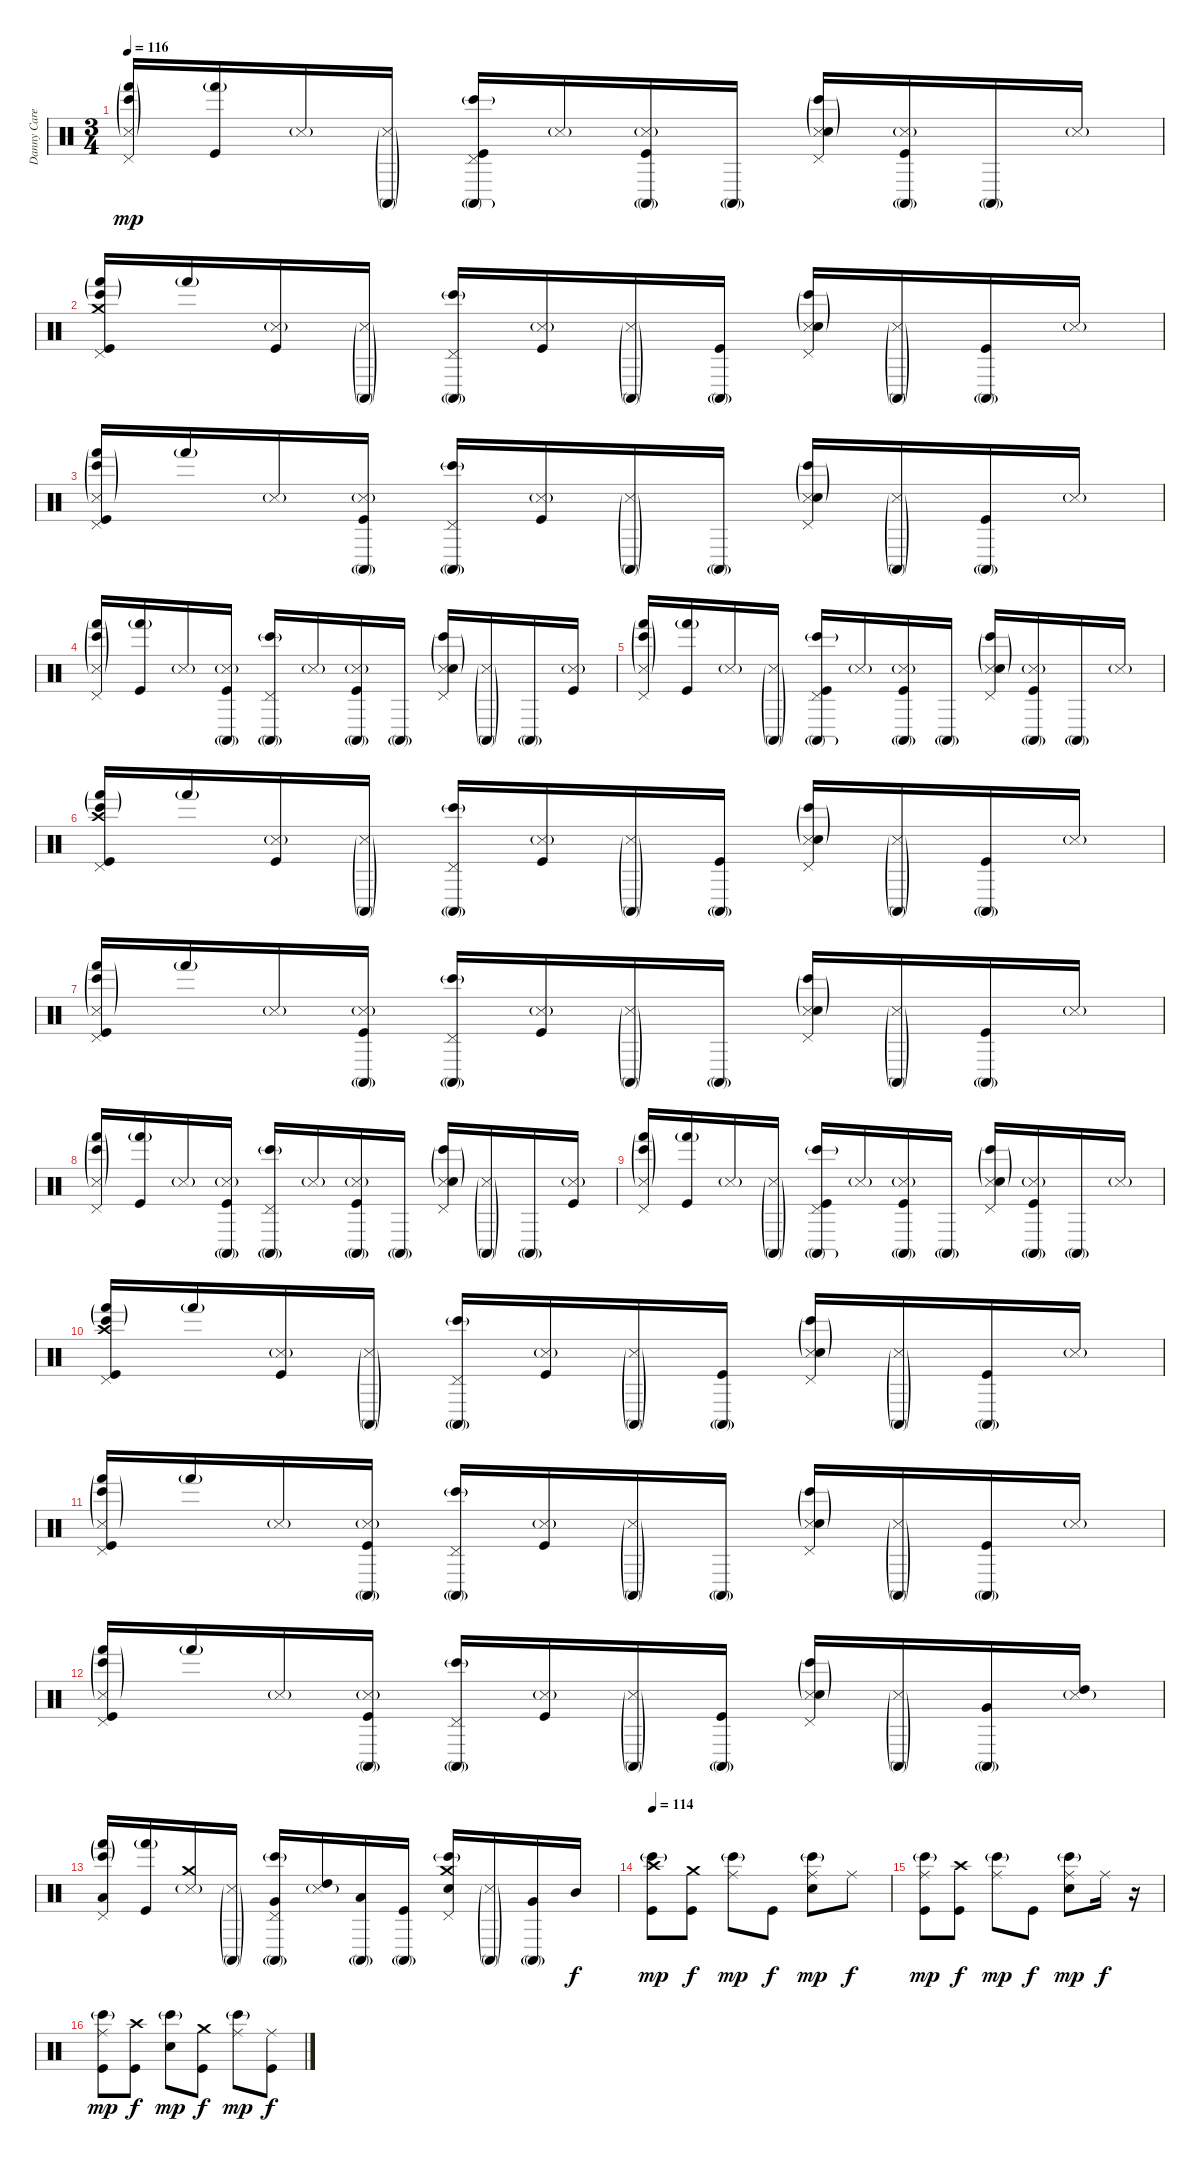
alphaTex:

\track ("Danny Carey (drum)" "Danny Care") {instrument percussion}
\staff {score}
\articulation defaults
\ts (3 4)
\tempo 116
\clef neutral
\ks c
("Hand (hit)"{g} "Pedal Hi-Hat (hit)" "Snare (side stick) 3"{g} "Bongo High (hit)"{g}).16{dy mp} ("Hand (hit)"{g} "Kick (hit)").16 "Snare (side stick) 3"{g}.16 ("Conga high (mute)"{g} "Snare (side stick) 3"{g}).16 ("Conga high (mute)"{g} "Pedal Hi-Hat (hit)" "Bongo High (hit)"{g} "Kick (hit)").16 "Snare (side stick) 3"{g}.16 ("Conga high (mute)"{g} "Snare (side stick) 3"{g} "Kick (hit)").16 "Conga high (mute)"{g}.16 ("Pedal Hi-Hat (hit)" "Snare (side stick) 3"{g} "Snare (hit) 2" "Bongo High (hit)"{g}).16 ("Conga high (mute)"{g} "Snare (side stick) 3"{g} "Kick (hit)").16 "Conga high (mute)"{g}.16 "Snare (side stick) 3"{g}.16 |
("Hand (hit)"{g} "Pedal Hi-Hat (hit)" "Crash medium (hit)" "Bongo High (hit)"{g} "Kick (hit)").16 "Hand (hit)"{g}.16 ("Snare (side stick) 3"{g} "Kick (hit)").16 ("Conga high (mute)"{g} "Snare (side stick) 3"{g}).16 ("Conga high (mute)"{g} "Pedal Hi-Hat (hit)" "Bongo High (hit)"{g}).16 ("Snare (side stick) 3"{g} "Kick (hit)").16 ("Conga high (mute)"{g} "Snare (side stick) 3"{g}).16 ("Conga high (mute)"{g} "Kick (hit)").16 ("Pedal Hi-Hat (hit)" "Snare (side stick) 3"{g} "Snare (hit) 2" "Bongo High (hit)"{g}).16 ("Conga high (mute)"{g} "Snare (side stick) 3"{g}).16 ("Conga high (mute)"{g} "Kick (hit)").16 "Snare (side stick) 3"{g}.16 |
("Hand (hit)"{g} "Pedal Hi-Hat (hit)" "Snare (side stick) 3"{g} "Bongo High (hit)"{g} "Kick (hit)").16 "Hand (hit)"{g}.16 "Snare (side stick) 3"{g}.16 ("Conga high (mute)"{g} "Snare (side stick) 3"{g} "Kick (hit)").16 ("Conga high (mute)"{g} "Pedal Hi-Hat (hit)" "Bongo High (hit)"{g}).16 ("Snare (side stick) 3"{g} "Kick (hit)").16 ("Conga high (mute)"{g} "Snare (side stick) 3"{g}).16 "Conga high (mute)"{g}.16 ("Pedal Hi-Hat (hit)" "Snare (side stick) 3"{g} "Snare (hit) 2" "Bongo High (hit)"{g}).16 ("Conga high (mute)"{g} "Snare (side stick) 3"{g}).16 ("Conga high (mute)"{g} "Kick (hit)").16 "Snare (side stick) 3"{g}.16 |
("Hand (hit)"{g} "Pedal Hi-Hat (hit)" "Snare (side stick) 3"{g} "Bongo High (hit)"{g}).16 ("Hand (hit)"{g} "Kick (hit)").16 "Snare (side stick) 3"{g}.16 ("Conga high (mute)"{g} "Snare (side stick) 3"{g} "Kick (hit)").16 ("Conga high (mute)"{g} "Pedal Hi-Hat (hit)" "Bongo High (hit)"{g}).16 "Snare (side stick) 3"{g}.16 ("Conga high (mute)"{g} "Snare (side stick) 3"{g} "Kick (hit)").16 "Conga high (mute)"{g}.16 ("Pedal Hi-Hat (hit)" "Snare (side stick) 3"{g} "Snare (hit) 2" "Bongo High (hit)"{g}).16 ("Conga high (mute)"{g} "Snare (side stick) 3"{g}).16 "Conga high (mute)"{g}.16 ("Snare (side stick) 3"{g} "Kick (hit)").16 |
("Hand (hit)"{g} "Pedal Hi-Hat (hit)" "Snare (side stick) 3"{g} "Bongo High (hit)"{g}).16 ("Hand (hit)"{g} "Kick (hit)").16 "Snare (side stick) 3"{g}.16 ("Conga high (mute)"{g} "Snare (side stick) 3"{g}).16 ("Conga high (mute)"{g} "Pedal Hi-Hat (hit)" "Bongo High (hit)"{g} "Kick (hit)").16 "Snare (side stick) 3"{g}.16 ("Conga high (mute)"{g} "Snare (side stick) 3"{g} "Kick (hit)").16 "Conga high (mute)"{g}.16 ("Pedal Hi-Hat (hit)" "Snare (side stick) 3"{g} "Snare (hit) 2" "Bongo High (hit)"{g}).16 ("Conga high (mute)"{g} "Snare (side stick) 3"{g} "Kick (hit)").16 "Conga high (mute)"{g}.16 "Snare (side stick) 3"{g}.16 |
("Hand (hit)"{g} "Pedal Hi-Hat (hit)" "Crash high (hit)" "Bongo High (hit)"{g} "Kick (hit)").16 "Hand (hit)"{g}.16 ("Snare (side stick) 3"{g} "Kick (hit)").16 ("Conga high (mute)"{g} "Snare (side stick) 3"{g}).16 ("Conga high (mute)"{g} "Pedal Hi-Hat (hit)" "Bongo High (hit)"{g}).16 ("Snare (side stick) 3"{g} "Kick (hit)").16 ("Conga high (mute)"{g} "Snare (side stick) 3"{g}).16 ("Conga high (mute)"{g} "Kick (hit)").16 ("Pedal Hi-Hat (hit)" "Snare (side stick) 3"{g} "Snare (hit) 2" "Bongo High (hit)"{g}).16 ("Conga high (mute)"{g} "Snare (side stick) 3"{g}).16 ("Conga high (mute)"{g} "Kick (hit)").16 "Snare (side stick) 3"{g}.16 |
("Hand (hit)"{g} "Pedal Hi-Hat (hit)" "Snare (side stick) 3"{g} "Bongo High (hit)"{g} "Kick (hit)").16 "Hand (hit)"{g}.16 "Snare (side stick) 3"{g}.16 ("Conga high (mute)"{g} "Snare (side stick) 3"{g} "Kick (hit)").16 ("Conga high (mute)"{g} "Pedal Hi-Hat (hit)" "Bongo High (hit)"{g}).16 ("Snare (side stick) 3"{g} "Kick (hit)").16 ("Conga high (mute)"{g} "Snare (side stick) 3"{g}).16 "Conga high (mute)"{g}.16 ("Pedal Hi-Hat (hit)" "Snare (side stick) 3"{g} "Snare (hit) 2" "Bongo High (hit)"{g}).16 ("Conga high (mute)"{g} "Snare (side stick) 3"{g}).16 ("Conga high (mute)"{g} "Kick (hit)").16 "Snare (side stick) 3"{g}.16 |
("Hand (hit)"{g} "Pedal Hi-Hat (hit)" "Snare (side stick) 3"{g} "Bongo High (hit)"{g}).16 ("Hand (hit)"{g} "Kick (hit)").16 "Snare (side stick) 3"{g}.16 ("Conga high (mute)"{g} "Snare (side stick) 3"{g} "Kick (hit)").16 ("Conga high (mute)"{g} "Pedal Hi-Hat (hit)" "Bongo High (hit)"{g}).16 "Snare (side stick) 3"{g}.16 ("Conga high (mute)"{g} "Snare (side stick) 3"{g} "Kick (hit)").16 "Conga high (mute)"{g}.16 ("Pedal Hi-Hat (hit)" "Snare (side stick) 3"{g} "Snare (hit) 2" "Bongo High (hit)"{g}).16 ("Conga high (mute)"{g} "Snare (side stick) 3"{g}).16 "Conga high (mute)"{g}.16 ("Snare (side stick) 3"{g} "Kick (hit)").16 |
("Hand (hit)"{g} "Pedal Hi-Hat (hit)" "Snare (side stick) 3"{g} "Bongo High (hit)"{g}).16 ("Hand (hit)"{g} "Kick (hit)").16 "Snare (side stick) 3"{g}.16 ("Conga high (mute)"{g} "Snare (side stick) 3"{g}).16 ("Conga high (mute)"{g} "Pedal Hi-Hat (hit)" "Bongo High (hit)"{g} "Kick (hit)").16 "Snare (side stick) 3"{g}.16 ("Conga high (mute)"{g} "Snare (side stick) 3"{g} "Kick (hit)").16 "Conga high (mute)"{g}.16 ("Pedal Hi-Hat (hit)" "Snare (side stick) 3"{g} "Snare (hit) 2" "Bongo High (hit)"{g}).16 ("Conga high (mute)"{g} "Snare (side stick) 3"{g} "Kick (hit)").16 "Conga high (mute)"{g}.16 "Snare (side stick) 3"{g}.16 |
("Hand (hit)"{g} "Pedal Hi-Hat (hit)" "Crash high (hit)" "Bongo High (hit)"{g} "Kick (hit)").16 "Hand (hit)"{g}.16 ("Snare (side stick) 3"{g} "Kick (hit)").16 ("Conga high (mute)"{g} "Snare (side stick) 3"{g}).16 ("Conga high (mute)"{g} "Pedal Hi-Hat (hit)" "Bongo High (hit)"{g}).16 ("Snare (side stick) 3"{g} "Kick (hit)").16 ("Conga high (mute)"{g} "Snare (side stick) 3"{g}).16 ("Conga high (mute)"{g} "Kick (hit)").16 ("Pedal Hi-Hat (hit)" "Snare (side stick) 3"{g} "Snare (hit) 2" "Bongo High (hit)"{g}).16 ("Conga high (mute)"{g} "Snare (side stick) 3"{g}).16 ("Conga high (mute)"{g} "Kick (hit)").16 "Snare (side stick) 3"{g}.16 |
("Hand (hit)"{g} "Pedal Hi-Hat (hit)" "Snare (side stick) 3"{g} "Bongo High (hit)"{g} "Kick (hit)").16 "Hand (hit)"{g}.16 "Snare (side stick) 3"{g}.16 ("Conga high (mute)"{g} "Snare (side stick) 3"{g} "Kick (hit)").16 ("Conga high (mute)"{g} "Pedal Hi-Hat (hit)" "Bongo High (hit)"{g}).16 ("Snare (side stick) 3"{g} "Kick (hit)").16 ("Conga high (mute)"{g} "Snare (side stick) 3"{g}).16 "Conga high (mute)"{g}.16 ("Pedal Hi-Hat (hit)" "Snare (side stick) 3"{g} "Snare (hit) 2" "Bongo High (hit)"{g}).16 ("Conga high (mute)"{g} "Snare (side stick) 3"{g}).16 ("Conga high (mute)"{g} "Kick (hit)").16 "Snare (side stick) 3"{g}.16 |
("Hand (hit)"{g} "Pedal Hi-Hat (hit)" "Snare (side stick) 3"{g} "Bongo High (hit)"{g} "Kick (hit)").16 "Hand (hit)"{g}.16 "Snare (side stick) 3"{g}.16 ("Conga high (mute)"{g} "Snare (side stick) 3"{g} "Kick (hit)").16 ("Conga high (mute)"{g} "Pedal Hi-Hat (hit)" "Bongo High (hit)"{g}).16 ("Snare (side stick) 3"{g} "Kick (hit)").16 ("Conga high (mute)"{g} "Snare (side stick) 3"{g}).16 ("Conga high (mute)"{g} "Kick (hit)").16 ("Pedal Hi-Hat (hit)" "Snare (side stick) 3"{g} "Snare (hit) 2" "Bongo High (hit)"{g}).16 ("Conga high (mute)"{g} "Snare (side stick) 3"{g}).16 ("Conga high (mute)"{g} "Very Low Tom (hit)").16 ("High Tom (hit)" "Snare (side stick) 3"{g}).16 |
("Hand (hit)"{g} "Pedal Hi-Hat (hit)" "Low Tom (hit)" "Bongo High (hit)"{g}).16 ("Hand (hit)"{g} "Kick (hit)").16 ("Crash medium (hit)" "Snare (side stick) 3"{g}).16 ("Conga high (mute)"{g} "Snare (side stick) 3"{g}).16 ("Conga high (mute)"{g} "Pedal Hi-Hat (hit)" "Very Low Tom (hit)" "Bongo High (hit)"{g}).16 ("High Tom (hit)" "Snare (side stick) 3"{g}).16 ("Conga high (mute)"{g} "Low Tom (hit)").16 ("Conga high (mute)"{g} "Kick (hit)").16 ("Crash medium (hit)" "Pedal Hi-Hat (hit)" "Snare (hit) 2" "Bongo High (hit)"{g}).16 ("Conga high (mute)"{g} "Snare (side stick) 3"{g}).16 ("Conga high (mute)"{g} "Very Low Tom (hit)").16 "Mid Tom (hit)".16{dy f} |
\tempo 114
("Crash high (hit)" "Bongo High (hit)"{g} "Kick (hit)").8{dy mp} ("Crash medium (hit)" "Kick (hit)").8{dy f} ("Ride (middle)" "Bongo High (hit)"{g}).8{dy mp} "Kick (hit)".8{dy f} ("Ride (middle)" "Snare (hit) 2" "Bongo High (hit)"{g}).8{dy mp} "Ride (middle)".8{dy f} |
("Ride (middle)" "Bongo High (hit)"{g} "Kick (hit)").8{dy mp} ("Crash high (hit)" "Kick (hit)").8{dy f} ("Ride (middle)" "Bongo High (hit)"{g}).8{dy mp} "Kick (hit)".8{dy f} ("Ride (middle)" "Snare (hit) 2" "Bongo High (hit)"{g}).8{dy mp} "Ride (middle)".16{dy f} r.16 |
("Ride (middle)" "Bongo High (hit)"{g} "Kick (hit)").8{dy mp} ("Crash high (hit)" "Kick (hit)").8{dy f} ("Snare (hit) 2" "Bongo High (hit)"{g}).8{dy mp} ("Crash medium (hit)" "Kick (hit)").8{dy f} ("Ride (middle)" "Bongo High (hit)"{g}).8{dy mp} ("Ride (middle)" "Kick (hit)").8{dy f}
